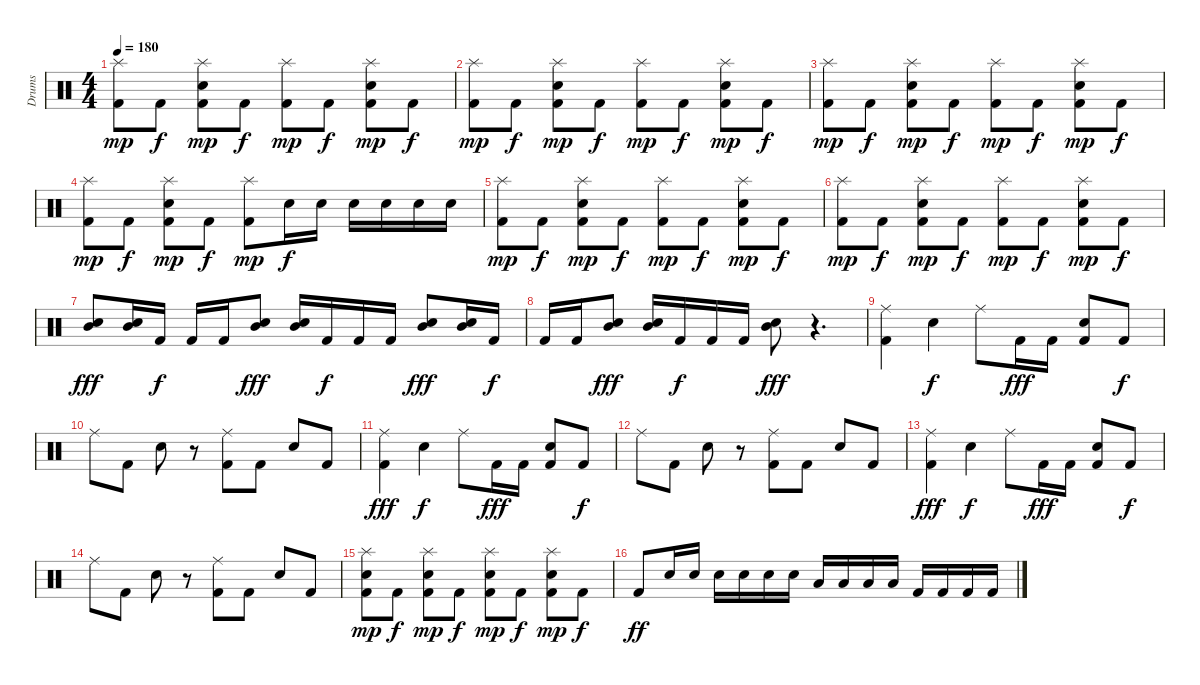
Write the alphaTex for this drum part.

\track ("Drums" "Drums") {instrument percussion}
\staff {score}
\articulation defaults
\ts (4 4)
\tempo 180
\clef neutral
\ks c
("Splash (hit)" "Kick (hit) 2").8{dy mp} "Kick (hit) 2".8{dy f} ("Splash (hit)" "Snare (hit) 2" "Kick (hit) 2").8{dy mp} "Kick (hit) 2".8{dy f} ("Splash (hit)" "Kick (hit) 2").8{dy mp} "Kick (hit) 2".8{dy f} ("Splash (hit)" "Snare (hit) 2" "Kick (hit) 2").8{dy mp} "Kick (hit) 2".8{dy f} |
("Splash (hit)" "Kick (hit) 2").8{dy mp} "Kick (hit) 2".8{dy f} ("Splash (hit)" "Snare (hit) 2" "Kick (hit) 2").8{dy mp} "Kick (hit) 2".8{dy f} ("Splash (hit)" "Kick (hit) 2").8{dy mp} "Kick (hit) 2".8{dy f} ("Splash (hit)" "Snare (hit) 2" "Kick (hit) 2").8{dy mp} "Kick (hit) 2".8{dy f} |
("Splash (hit)" "Kick (hit) 2").8{dy mp} "Kick (hit) 2".8{dy f} ("Splash (hit)" "Snare (hit) 2" "Kick (hit) 2").8{dy mp} "Kick (hit) 2".8{dy f} ("Splash (hit)" "Kick (hit) 2").8{dy mp} "Kick (hit) 2".8{dy f} ("Splash (hit)" "Snare (hit) 2" "Kick (hit) 2").8{dy mp} "Kick (hit) 2".8{dy f} |
("Splash (hit)" "Kick (hit) 2").8{dy mp} "Kick (hit) 2".8{dy f} ("Splash (hit)" "Snare (hit) 2" "Kick (hit) 2").8{dy mp} "Kick (hit) 2".8{dy f} ("Splash (hit)" "Kick (hit) 2").8{dy mp} "Snare (hit) 2".16{dy f} "Snare (hit) 2".16 "Snare (hit) 2".16 "Snare (hit) 2".16 "Snare (hit) 2".16 "Snare (hit) 2".16 |
("Splash (hit)" "Kick (hit) 2").8{dy mp} "Kick (hit) 2".8{dy f} ("Splash (hit)" "Snare (hit) 2" "Kick (hit) 2").8{dy mp} "Kick (hit) 2".8{dy f} ("Splash (hit)" "Kick (hit) 2").8{dy mp} "Kick (hit) 2".8{dy f} ("Splash (hit)" "Snare (hit) 2" "Kick (hit) 2").8{dy mp} "Kick (hit) 2".8{dy f} |
("Splash (hit)" "Kick (hit) 2").8{dy mp} "Kick (hit) 2".8{dy f} ("Splash (hit)" "Snare (hit) 2" "Kick (hit) 2").8{dy mp} "Kick (hit) 2".8{dy f} ("Splash (hit)" "Kick (hit) 2").8{dy mp} "Kick (hit) 2".8{dy f} ("Splash (hit)" "Snare (hit) 2" "Kick (hit) 2").8{dy mp} "Kick (hit) 2".8{dy f} |
("Mid Tom (hit)" "Snare (hit) 2").8{dy fff} ("Mid Tom (hit)" "Snare (hit) 2").16 "Kick (hit) 2".16{dy f} "Kick (hit) 2".16 "Kick (hit) 2".16 ("Mid Tom (hit)" "Snare (hit) 2").8{dy fff} ("Mid Tom (hit)" "Snare (hit) 2").16 "Kick (hit) 2".16{dy f} "Kick (hit) 2".16 "Kick (hit) 2".16 ("Mid Tom (hit)" "Snare (hit) 2").8{dy fff} ("Mid Tom (hit)" "Snare (hit) 2").16 "Kick (hit) 2".16{dy f} |
"Kick (hit) 2".16 "Kick (hit) 2".16 ("Mid Tom (hit)" "Snare (hit) 2").8{dy fff} ("Mid Tom (hit)" "Snare (hit) 2").16 "Kick (hit) 2".16{dy f} "Kick (hit) 2".16 "Kick (hit) 2".16 ("Mid Tom (hit)" "Snare (hit) 2").8{dy fff} r.4{d} |
("Ride (middle)" "Kick (hit) 2").4 "Snare (hit) 2".4{dy f} "Ride (middle)".8 "Kick (hit) 2".16{dy fff} "Kick (hit) 2".16 ("Snare (hit) 2" "Kick (hit) 2").8 "Kick (hit) 2".8{dy f} |
"Ride (middle)".8 "Kick (hit) 2".8 "Snare (hit) 2".8 r.8 ("Ride (middle)" "Kick (hit) 2").8 "Kick (hit) 2".8 "Snare (hit) 2".8 "Kick (hit) 2".8 |
("Ride (middle)" "Kick (hit) 2").4{dy fff} "Snare (hit) 2".4{dy f} "Ride (middle)".8 "Kick (hit) 2".16{dy fff} "Kick (hit) 2".16 ("Snare (hit) 2" "Kick (hit) 2").8 "Kick (hit) 2".8{dy f} |
"Ride (middle)".8 "Kick (hit) 2".8 "Snare (hit) 2".8 r.8 ("Ride (middle)" "Kick (hit) 2").8 "Kick (hit) 2".8 "Snare (hit) 2".8 "Kick (hit) 2".8 |
("Ride (middle)" "Kick (hit) 2").4{dy fff} "Snare (hit) 2".4{dy f} "Ride (middle)".8 "Kick (hit) 2".16{dy fff} "Kick (hit) 2".16 ("Snare (hit) 2" "Kick (hit) 2").8 "Kick (hit) 2".8{dy f} |
"Ride (middle)".8 "Kick (hit) 2".8 "Snare (hit) 2".8 r.8 ("Ride (middle)" "Kick (hit) 2").8 "Kick (hit) 2".8 "Snare (hit) 2".8 "Kick (hit) 2".8 |
("Splash (hit)" "Snare (hit) 2" "Kick (hit) 2").8{dy mp} "Kick (hit) 2".8{dy f} ("Splash (hit)" "Snare (hit) 2" "Kick (hit) 2").8{dy mp} "Kick (hit) 2".8{dy f} ("Splash (hit)" "Snare (hit) 2" "Kick (hit) 2").8{dy mp} "Kick (hit) 2".8{dy f} ("Splash (hit)" "Snare (hit) 2" "Kick (hit) 2").8{dy mp} "Kick (hit) 2".8{dy f} |
"Kick (hit) 2".8{dy ff} "Snare (hit) 2".16 "Snare (hit) 2".16 "Snare (hit) 2".16 "Snare (hit) 2".16 "Snare (hit) 2".16 "Snare (hit) 2".16 "Low Floor Tom (hit)".16 "Low Floor Tom (hit)".16 "Low Floor Tom (hit)".16 "Low Floor Tom (hit)".16 "Kick (hit) 2".16 "Kick (hit) 2".16 "Kick (hit) 2".16 "Kick (hit) 2".16
